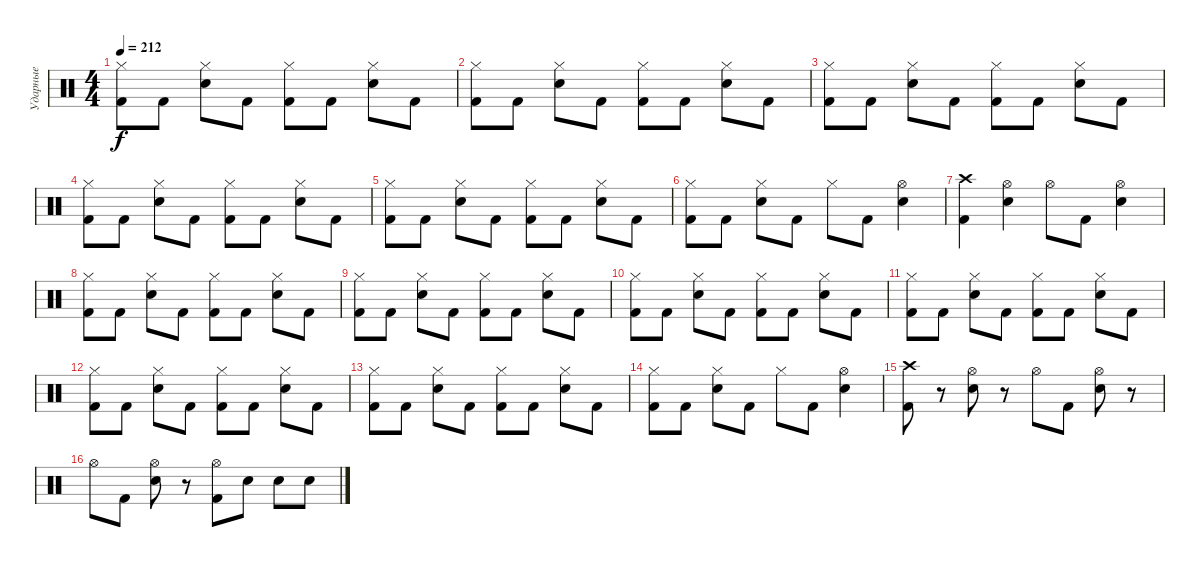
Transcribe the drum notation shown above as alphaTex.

\track ("Ударные" "Ударные") {instrument percussion}
\staff {score}
\articulation defaults
\ts (4 4)
\tempo 212
\clef neutral
\ks c
("Hi-Hat (closed)" "Kick (hit) 2").8{dy f} "Kick (hit) 2".8 ("Hi-Hat (closed)" "Electric Snare (hit)").8 "Kick (hit) 2".8 ("Hi-Hat (closed)" "Kick (hit) 2").8 "Kick (hit) 2".8 ("Hi-Hat (closed)" "Electric Snare (hit)").8 "Kick (hit) 2".8 |
("Hi-Hat (closed)" "Kick (hit) 2").8 "Kick (hit) 2".8 ("Hi-Hat (closed)" "Electric Snare (hit)").8 "Kick (hit) 2".8 ("Hi-Hat (closed)" "Kick (hit) 2").8 "Kick (hit) 2".8 ("Hi-Hat (closed)" "Electric Snare (hit)").8 "Kick (hit) 2".8 |
("Hi-Hat (closed)" "Kick (hit) 2").8 "Kick (hit) 2".8 ("Hi-Hat (closed)" "Electric Snare (hit)").8 "Kick (hit) 2".8 ("Hi-Hat (closed)" "Kick (hit) 2").8 "Kick (hit) 2".8 ("Hi-Hat (closed)" "Electric Snare (hit)").8 "Kick (hit) 2".8 |
("Hi-Hat (closed)" "Kick (hit) 2").8 "Kick (hit) 2".8 ("Hi-Hat (closed)" "Electric Snare (hit)").8 "Kick (hit) 2".8 ("Hi-Hat (closed)" "Kick (hit) 2").8 "Kick (hit) 2".8 ("Hi-Hat (closed)" "Electric Snare (hit)").8 "Kick (hit) 2".8 |
("Hi-Hat (closed)" "Kick (hit) 2").8 "Kick (hit) 2".8 ("Hi-Hat (closed)" "Electric Snare (hit)").8 "Kick (hit) 2".8 ("Hi-Hat (closed)" "Kick (hit) 2").8 "Kick (hit) 2".8 ("Hi-Hat (closed)" "Electric Snare (hit)").8 "Kick (hit) 2".8 |
("Hi-Hat (closed)" "Kick (hit) 2").8 "Kick (hit) 2".8 ("Hi-Hat (closed)" "Electric Snare (hit)").8 "Kick (hit) 2".8 "Hi-Hat (closed)".8 "Kick (hit) 2".8 ("Hi-Hat (open)" "Electric Snare (hit)").4 |
("Crash high (hit)" "Kick (hit) 2").4 ("Hi-Hat (open)" "Electric Snare (hit)").4 "Hi-Hat (open)".8 "Kick (hit) 2".8 ("Hi-Hat (open)" "Electric Snare (hit)").4 |
("Hi-Hat (closed)" "Kick (hit) 2").8 "Kick (hit) 2".8 ("Hi-Hat (closed)" "Electric Snare (hit)").8 "Kick (hit) 2".8 ("Hi-Hat (closed)" "Kick (hit) 2").8 "Kick (hit) 2".8 ("Hi-Hat (closed)" "Electric Snare (hit)").8 "Kick (hit) 2".8 |
("Hi-Hat (closed)" "Kick (hit) 2").8 "Kick (hit) 2".8 ("Hi-Hat (closed)" "Electric Snare (hit)").8 "Kick (hit) 2".8 ("Hi-Hat (closed)" "Kick (hit) 2").8 "Kick (hit) 2".8 ("Hi-Hat (closed)" "Electric Snare (hit)").8 "Kick (hit) 2".8 |
("Hi-Hat (closed)" "Kick (hit) 2").8 "Kick (hit) 2".8 ("Hi-Hat (closed)" "Electric Snare (hit)").8 "Kick (hit) 2".8 ("Hi-Hat (closed)" "Kick (hit) 2").8 "Kick (hit) 2".8 ("Hi-Hat (closed)" "Electric Snare (hit)").8 "Kick (hit) 2".8 |
("Hi-Hat (closed)" "Kick (hit) 2").8 "Kick (hit) 2".8 ("Hi-Hat (closed)" "Electric Snare (hit)").8 "Kick (hit) 2".8 ("Hi-Hat (closed)" "Kick (hit) 2").8 "Kick (hit) 2".8 ("Hi-Hat (closed)" "Electric Snare (hit)").8 "Kick (hit) 2".8 |
("Hi-Hat (closed)" "Kick (hit) 2").8 "Kick (hit) 2".8 ("Hi-Hat (closed)" "Electric Snare (hit)").8 "Kick (hit) 2".8 ("Hi-Hat (closed)" "Kick (hit) 2").8 "Kick (hit) 2".8 ("Hi-Hat (closed)" "Electric Snare (hit)").8 "Kick (hit) 2".8 |
("Hi-Hat (closed)" "Kick (hit) 2").8 "Kick (hit) 2".8 ("Hi-Hat (closed)" "Electric Snare (hit)").8 "Kick (hit) 2".8 ("Hi-Hat (closed)" "Kick (hit) 2").8 "Kick (hit) 2".8 ("Hi-Hat (closed)" "Electric Snare (hit)").8 "Kick (hit) 2".8 |
("Hi-Hat (closed)" "Kick (hit) 2").8 "Kick (hit) 2".8 ("Hi-Hat (closed)" "Electric Snare (hit)").8 "Kick (hit) 2".8 "Hi-Hat (closed)".8 "Kick (hit) 2".8 ("Hi-Hat (open)" "Electric Snare (hit)").4 |
("Crash high (hit)" "Kick (hit) 2").8 r.8 ("Hi-Hat (open)" "Electric Snare (hit)").8 r.8 "Hi-Hat (open)".8 "Kick (hit) 2".8 ("Hi-Hat (open)" "Electric Snare (hit)").8 r.8 |
"Hi-Hat (open)".8 "Kick (hit) 2".8 ("Hi-Hat (open)" "Electric Snare (hit)").8 r.8 ("Hi-Hat (open)" "Kick (hit) 2").8 "Electric Snare (hit)".8 "Electric Snare (hit)".8 "Electric Snare (hit)".8
